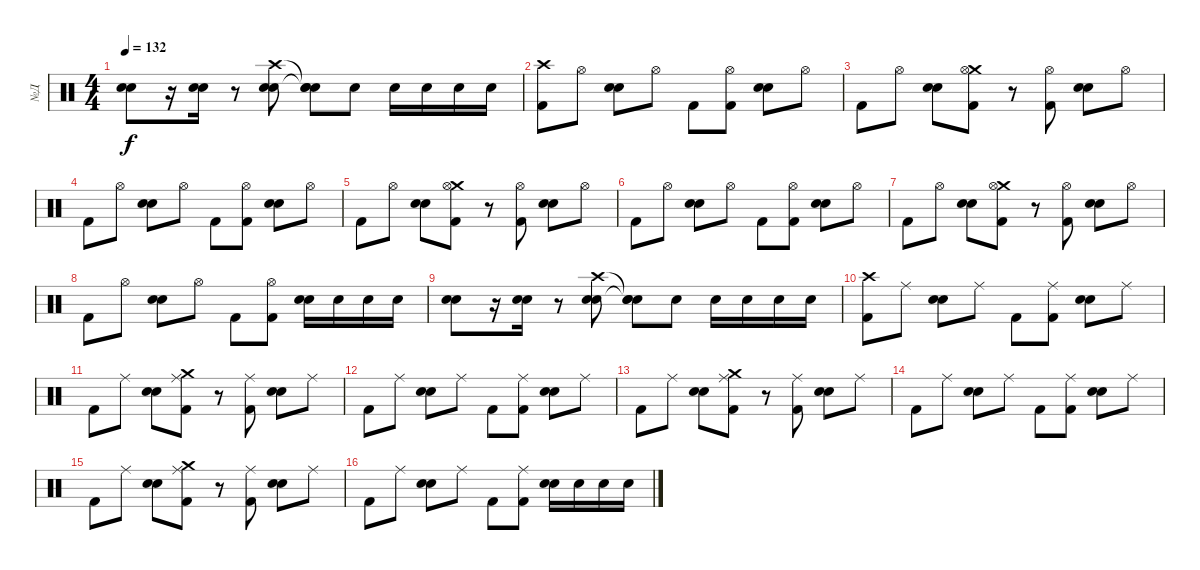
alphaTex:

\track ("№Д" "№Д") {instrument percussion}
\staff {score}
\articulation defaults
\ts (4 4)
\tempo 132
\clef neutral
\ks c
("Snare (hit) 2" "Electric Snare (hit)").8{dy f} r.16 ("Snare (hit) 2" "Electric Snare (hit)").16 r.8 ("Crash high (hit)" "Snare (hit) 2" "Electric Snare (hit)").8 ("Snare (hit)"{t} "Snare (hit)"{t} "Snare (hit) 2").8 "Snare (hit) 2".8 "Snare (hit) 2".16 "Snare (hit) 2".16 "Snare (hit) 2".16 "Snare (hit) 2".16 |
("Crash high (hit)" "Kick (hit) 2").8 "Hi-Hat (open)".8 ("Hand Clap (hit)" "Snare (hit) 2").8 "Hi-Hat (open)".8 "Kick (hit) 2".8 ("Hi-Hat (open)" "Kick (hit) 2").8 ("Hand Clap (hit)" "Snare (hit) 2").8 "Hi-Hat (open)".8 |
"Kick (hit) 2".8 "Hi-Hat (open)".8 ("Hand Clap (hit)" "Snare (hit) 2").8 ("Crash medium (hit)" "Hi-Hat (open)" "Kick (hit) 2").8 r.8 ("Hi-Hat (open)" "Kick (hit) 2").8 ("Hand Clap (hit)" "Snare (hit) 2").8 "Hi-Hat (open)".8 |
"Kick (hit) 2".8 "Hi-Hat (open)".8 ("Hand Clap (hit)" "Snare (hit) 2").8 "Hi-Hat (open)".8 "Kick (hit) 2".8 ("Hi-Hat (open)" "Kick (hit) 2").8 ("Hand Clap (hit)" "Snare (hit) 2").8 "Hi-Hat (open)".8 |
"Kick (hit) 2".8 "Hi-Hat (open)".8 ("Hand Clap (hit)" "Snare (hit) 2").8 ("Crash medium (hit)" "Hi-Hat (open)" "Kick (hit) 2").8 r.8 ("Hi-Hat (open)" "Kick (hit) 2").8 ("Hand Clap (hit)" "Snare (hit) 2").8 "Hi-Hat (open)".8 |
"Kick (hit) 2".8 "Hi-Hat (open)".8 ("Hand Clap (hit)" "Snare (hit) 2").8 "Hi-Hat (open)".8 "Kick (hit) 2".8 ("Hi-Hat (open)" "Kick (hit) 2").8 ("Hand Clap (hit)" "Snare (hit) 2").8 "Hi-Hat (open)".8 |
"Kick (hit) 2".8 "Hi-Hat (open)".8 ("Hand Clap (hit)" "Snare (hit) 2").8 ("Crash medium (hit)" "Hi-Hat (open)" "Kick (hit) 2").8 r.8 ("Hi-Hat (open)" "Kick (hit) 2").8 ("Hand Clap (hit)" "Snare (hit) 2").8 "Hi-Hat (open)".8 |
"Kick (hit) 2".8 "Hi-Hat (open)".8 ("Hand Clap (hit)" "Snare (hit) 2").8 "Hi-Hat (open)".8 "Kick (hit) 2".8 ("Hi-Hat (open)" "Kick (hit) 2").8 ("Hand Clap (hit)" "Snare (hit) 2").16 "Snare (hit) 2".16 "Snare (hit) 2".16 "Snare (hit) 2".16 |
("Snare (hit) 2" "Electric Snare (hit)").8 r.16 ("Snare (hit) 2" "Electric Snare (hit)").16 r.8 ("Crash high (hit)" "Snare (hit) 2" "Electric Snare (hit)").8 ("Snare (hit)"{t} "Snare (hit)"{t} "Snare (hit) 2").8 "Snare (hit) 2".8 "Snare (hit) 2".16 "Snare (hit) 2".16 "Snare (hit) 2".16 "Snare (hit) 2".16 |
("Crash high (hit)" "Kick (hit) 2").8 "Ride (middle)".8 ("Hand Clap (hit)" "Snare (hit) 2").8 "Ride (middle)".8 "Kick (hit) 2".8 ("Ride (middle)" "Kick (hit) 2").8 ("Hand Clap (hit)" "Snare (hit) 2").8 "Ride (middle)".8 |
"Kick (hit) 2".8 "Ride (middle)".8 ("Hand Clap (hit)" "Snare (hit) 2").8 ("Crash medium (hit)" "Ride (middle)" "Kick (hit) 2").8 r.8 ("Ride (middle)" "Kick (hit) 2").8 ("Hand Clap (hit)" "Snare (hit) 2").8 "Ride (middle)".8 |
"Kick (hit) 2".8 "Ride (middle)".8 ("Hand Clap (hit)" "Snare (hit) 2").8 "Ride (middle)".8 "Kick (hit) 2".8 ("Ride (middle)" "Kick (hit) 2").8 ("Hand Clap (hit)" "Snare (hit) 2").8 "Ride (middle)".8 |
"Kick (hit) 2".8 "Ride (middle)".8 ("Hand Clap (hit)" "Snare (hit) 2").8 ("Crash medium (hit)" "Ride (middle)" "Kick (hit) 2").8 r.8 ("Ride (middle)" "Kick (hit) 2").8 ("Hand Clap (hit)" "Snare (hit) 2").8 "Ride (middle)".8 |
"Kick (hit) 2".8 "Ride (middle)".8 ("Hand Clap (hit)" "Snare (hit) 2").8 "Ride (middle)".8 "Kick (hit) 2".8 ("Ride (middle)" "Kick (hit) 2").8 ("Hand Clap (hit)" "Snare (hit) 2").8 "Ride (middle)".8 |
"Kick (hit) 2".8 "Ride (middle)".8 ("Hand Clap (hit)" "Snare (hit) 2").8 ("Crash medium (hit)" "Ride (middle)" "Kick (hit) 2").8 r.8 ("Ride (middle)" "Kick (hit) 2").8 ("Hand Clap (hit)" "Snare (hit) 2").8 "Ride (middle)".8 |
"Kick (hit) 2".8 "Ride (middle)".8 ("Hand Clap (hit)" "Snare (hit) 2").8 "Ride (middle)".8 "Kick (hit) 2".8 ("Ride (middle)" "Kick (hit) 2").8 ("Hand Clap (hit)" "Snare (hit) 2").16 "Snare (hit) 2".16 "Snare (hit) 2".16 "Snare (hit) 2".16
